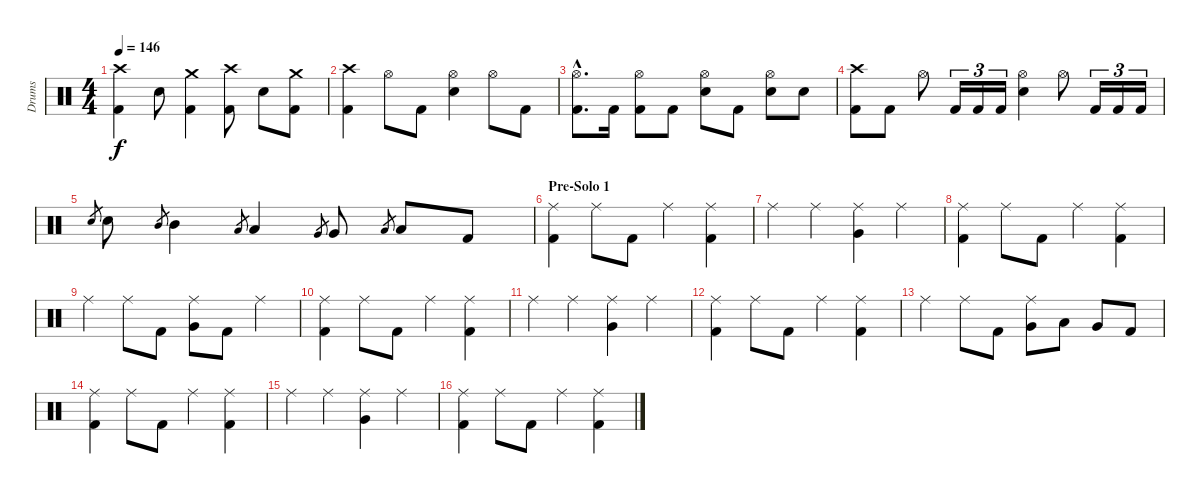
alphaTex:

\track ("Drums" "Drums") {instrument percussion}
\staff {score}
\articulation defaults
\ts (4 4)
\tempo 146
\clef neutral
\ks c
("Crash high (hit)" "Kick (hit) 2").4{dy f} "Snare (hit) 2".8 ("Crash medium (hit)" "Kick (hit) 2").4 ("Crash high (hit)" "Kick (hit) 2").8 "Snare (hit) 2".8 ("Crash medium (hit)" "Kick (hit) 2").8 |
("Crash high (hit)" "Kick (hit) 2").4 "Hi-Hat (open)".8 "Kick (hit) 2".8 ("Hi-Hat (open)" "Snare (hit) 2").4 "Hi-Hat (open)".8 "Kick (hit) 2".8 |
("Hi-Hat (open)"{hac} "Kick (hit) 2"{hac}).8{d} "Kick (hit) 2".16 ("Hi-Hat (open)" "Kick (hit) 2").8 "Kick (hit) 2".8 ("Hi-Hat (open)" "Snare (hit) 2").8 "Kick (hit) 2".8 ("Hi-Hat (open)" "Snare (hit) 2").8 "Snare (hit) 2".8 |
("Crash high (hit)" "Kick (hit) 2").8 "Kick (hit) 2".8 "Hi-Hat (open)".8 "Kick (hit) 2".16{tu (3 2)} "Kick (hit) 2".16{tu (3 2)} "Kick (hit) 2".16{tu (3 2)} ("Hi-Hat (open)" "Snare (hit) 2").4 "Hi-Hat (open)".8 "Kick (hit) 2".16{tu (3 2)} "Kick (hit) 2".16{tu (3 2)} "Kick (hit) 2".16{tu (3 2)} |
"Snare (hit) 2".8{gr} "Snare (hit) 2".8 "Mid Tom (hit)".8{gr} "Mid Tom (hit)".4 "Low Tom (hit)".8{gr} "Low Tom (hit)".4 "Very Low Tom (hit)".8{gr} "Very Low Tom (hit)".8 "Low Floor Tom (hit)".8{gr} "Low Floor Tom (hit)".8 "Kick (hit) 2".8 |
\section ("" "Pre-Solo 1")
("Ride (middle)" "Kick (hit) 2").4 "Ride (middle)".8 "Kick (hit) 2".8 "Ride (middle)".4 ("Ride (middle)" "Kick (hit) 2").4 |
"Ride (middle)".4 "Ride (middle)".4 ("Ride (middle)" "Very Low Tom (hit)").4 "Ride (middle)".4 |
("Ride (middle)" "Kick (hit) 2").4 "Ride (middle)".8 "Kick (hit) 2".8 "Ride (middle)".4 ("Ride (middle)" "Kick (hit) 2").4 |
"Ride (middle)".4 "Ride (middle)".8 "Kick (hit) 2".8 ("Ride (middle)" "Very Low Tom (hit)").8 "Kick (hit) 2".8 "Ride (middle)".4 |
("Ride (middle)" "Kick (hit) 2").4 "Ride (middle)".8 "Kick (hit) 2".8 "Ride (middle)".4 ("Ride (middle)" "Kick (hit) 2").4 |
"Ride (middle)".4 "Ride (middle)".4 ("Ride (middle)" "Very Low Tom (hit)").4 "Ride (middle)".4 |
("Ride (middle)" "Kick (hit) 2").4 "Ride (middle)".8 "Kick (hit) 2".8 "Ride (middle)".4 ("Ride (middle)" "Kick (hit) 2").4 |
"Ride (middle)".4 "Ride (middle)".8 "Kick (hit) 2".8 ("Ride (middle)" "Very Low Tom (hit)").8 "Low Tom (hit)".8 "Very Low Tom (hit)".8 "Kick (hit) 2".8 |
("Ride (middle)" "Kick (hit) 2").4 "Ride (middle)".8 "Kick (hit) 2".8 "Ride (middle)".4 ("Ride (middle)" "Kick (hit) 2").4 |
"Ride (middle)".4 "Ride (middle)".4 ("Ride (middle)" "Very Low Tom (hit)").4 "Ride (middle)".4 |
("Ride (middle)" "Kick (hit) 2").4 "Ride (middle)".8 "Kick (hit) 2".8 "Ride (middle)".4 ("Ride (middle)" "Kick (hit) 2").4
